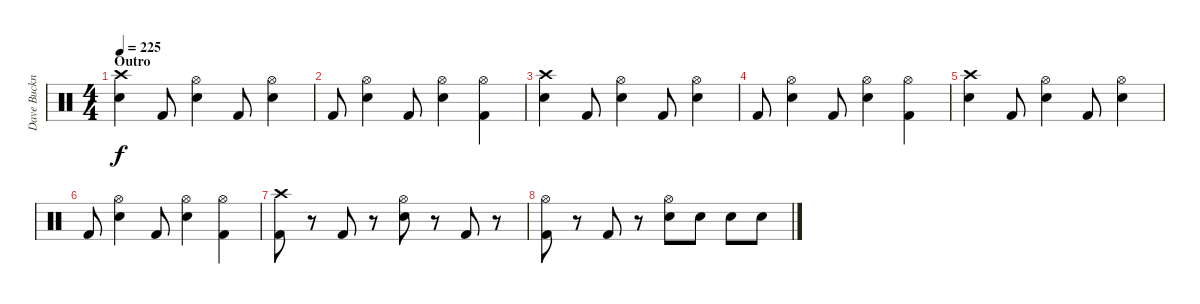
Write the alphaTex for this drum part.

\track ("Dave Buckner" "Dave Buckn") {instrument percussion}
\staff {score}
\articulation defaults
\ts (4 4)
\section ("" "Outro")
\tempo 225
\clef neutral
\ks c
("Crash high (hit)" "Electric Snare (hit)").4{dy f} "Kick (hit) 2".8 ("Hi-Hat (open)" "Electric Snare (hit)").4 "Kick (hit) 2".8 ("Hi-Hat (open)" "Electric Snare (hit)").4 |
"Kick (hit) 2".8 ("Hi-Hat (open)" "Electric Snare (hit)").4 "Kick (hit) 2".8 ("Hi-Hat (open)" "Electric Snare (hit)").4 ("Hi-Hat (open)" "Kick (hit) 2").4 |
("Crash high (hit)" "Electric Snare (hit)").4 "Kick (hit) 2".8 ("Hi-Hat (open)" "Electric Snare (hit)").4 "Kick (hit) 2".8 ("Hi-Hat (open)" "Electric Snare (hit)").4 |
"Kick (hit) 2".8 ("Hi-Hat (open)" "Electric Snare (hit)").4 "Kick (hit) 2".8 ("Hi-Hat (open)" "Electric Snare (hit)").4 ("Hi-Hat (open)" "Kick (hit) 2").4 |
("Crash high (hit)" "Electric Snare (hit)").4 "Kick (hit) 2".8 ("Hi-Hat (open)" "Electric Snare (hit)").4 "Kick (hit) 2".8 ("Hi-Hat (open)" "Electric Snare (hit)").4 |
"Kick (hit) 2".8 ("Hi-Hat (open)" "Electric Snare (hit)").4 "Kick (hit) 2".8 ("Hi-Hat (open)" "Electric Snare (hit)").4 ("Hi-Hat (open)" "Kick (hit) 2").4 |
("Crash high (hit)" "Kick (hit) 2").8 r.8 "Kick (hit) 2".8 r.8 ("Hi-Hat (open)" "Electric Snare (hit)").8 r.8 "Kick (hit) 2".8 r.8 |
("Hi-Hat (open)" "Kick (hit) 2").8 r.8 "Kick (hit) 2".8 r.8 ("Hi-Hat (open)" "Electric Snare (hit)").8 "Electric Snare (hit)".8 "Electric Snare (hit)".8 "Electric Snare (hit)".8
